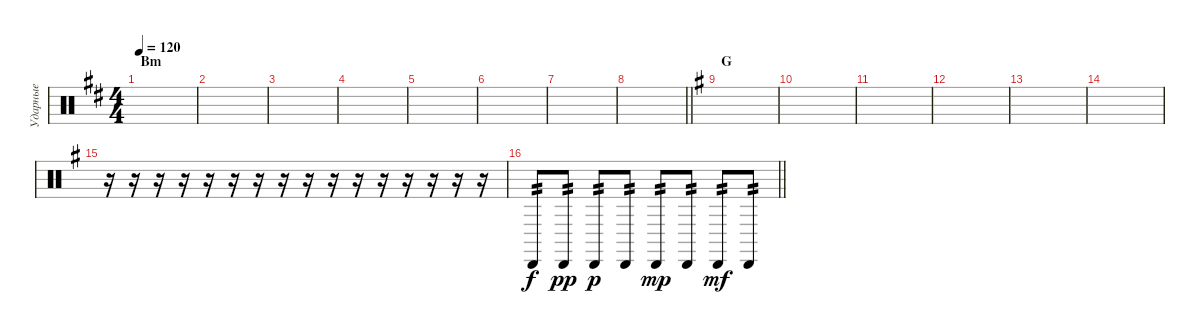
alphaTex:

\track ("Ударные" "Ударные") {instrument percussion}
\staff {score}
\articulation defaults
\ts (4 4)
\section ("" "Bm")
\tempo 120
\clef neutral
\ks bminor
|
|
|
|
|
|
|
\barLineRight lightlight
|
\section ("" "G")
\ks g
|
|
|
|
|
|
r.16 r.16 r.16 r.16 r.16 r.16 r.16 r.16 r.16 r.16 r.16 r.16 r.16 r.16 r.16 r.16 |
\barLineRight lightlight "Cabasa (hit)".8{tp 2} "Cabasa (hit)".8{tp 2 dy pp} "Cabasa (hit)".8{tp 2 dy p} "Cabasa (hit)".8{tp 2} "Cabasa (hit)".8{tp 2 dy mp} "Cabasa (hit)".8{tp 2} "Cabasa (hit)".8{tp 2 dy mf} "Cabasa (hit)".8{tp 2}
